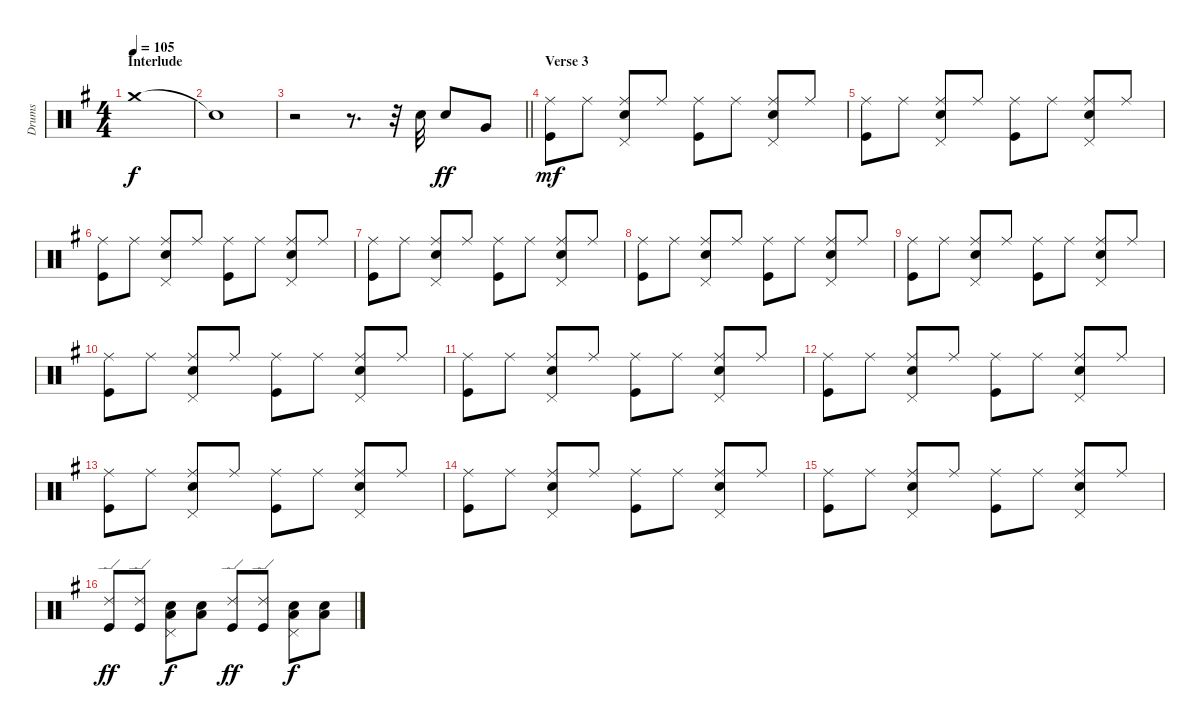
\track ("Drums" "Drums") {instrument percussion}
\staff {score}
\articulation defaults
\ts (4 4)
\section ("" "Interlude")
\tempo 105
\clef neutral
\ks eminor "Crash medium (hit)"{t}.1{dy f}
|
"Snare (hit)"{t}.1 |
\barLineRight lightlight
r.2 r.8{d} r.32 "Snare (hit) 2".32 "Snare (hit) 2".8{dy ff} "Very Low Tom (hit)".8 |
\section ("" "Verse 3")
("Ride (middle)" "Kick (hit)").8{dy mf} "Ride (middle)".8 ("Ride (middle)" "Pedal Hi-Hat (hit)" "Snare (hit) 2").8 "Ride (middle)".8 ("Ride (middle)" "Kick (hit)").8 "Ride (middle)".8 ("Ride (middle)" "Pedal Hi-Hat (hit)" "Snare (hit) 2").8 "Ride (middle)".8 |
("Ride (middle)" "Kick (hit)").8 "Ride (middle)".8 ("Ride (middle)" "Pedal Hi-Hat (hit)" "Snare (hit) 2").8 "Ride (middle)".8 ("Ride (middle)" "Kick (hit)").8 "Ride (middle)".8 ("Ride (middle)" "Pedal Hi-Hat (hit)" "Snare (hit) 2").8 "Ride (middle)".8 |
("Ride (middle)" "Kick (hit)").8 "Ride (middle)".8 ("Ride (middle)" "Pedal Hi-Hat (hit)" "Snare (hit) 2").8 "Ride (middle)".8 ("Ride (middle)" "Kick (hit)").8 "Ride (middle)".8 ("Ride (middle)" "Pedal Hi-Hat (hit)" "Snare (hit) 2").8 "Ride (middle)".8 |
("Ride (middle)" "Kick (hit)").8 "Ride (middle)".8 ("Ride (middle)" "Pedal Hi-Hat (hit)" "Snare (hit) 2").8 "Ride (middle)".8 ("Ride (middle)" "Kick (hit)").8 "Ride (middle)".8 ("Ride (middle)" "Pedal Hi-Hat (hit)" "Snare (hit) 2").8 "Ride (middle)".8 |
("Ride (middle)" "Kick (hit)").8 "Ride (middle)".8 ("Ride (middle)" "Pedal Hi-Hat (hit)" "Snare (hit) 2").8 "Ride (middle)".8 ("Ride (middle)" "Kick (hit)").8 "Ride (middle)".8 ("Ride (middle)" "Pedal Hi-Hat (hit)" "Snare (hit) 2").8 "Ride (middle)".8 |
("Ride (middle)" "Kick (hit)").8 "Ride (middle)".8 ("Ride (middle)" "Pedal Hi-Hat (hit)" "Snare (hit) 2").8 "Ride (middle)".8 ("Ride (middle)" "Kick (hit)").8 "Ride (middle)".8 ("Ride (middle)" "Pedal Hi-Hat (hit)" "Snare (hit) 2").8 "Ride (middle)".8 |
("Ride (middle)" "Kick (hit)").8 "Ride (middle)".8 ("Ride (middle)" "Pedal Hi-Hat (hit)" "Snare (hit) 2").8 "Ride (middle)".8 ("Ride (middle)" "Kick (hit)").8 "Ride (middle)".8 ("Ride (middle)" "Pedal Hi-Hat (hit)" "Snare (hit) 2").8 "Ride (middle)".8 |
("Ride (middle)" "Kick (hit)").8 "Ride (middle)".8 ("Ride (middle)" "Pedal Hi-Hat (hit)" "Snare (hit) 2").8 "Ride (middle)".8 ("Ride (middle)" "Kick (hit)").8 "Ride (middle)".8 ("Ride (middle)" "Pedal Hi-Hat (hit)" "Snare (hit) 2").8 "Ride (middle)".8 |
("Ride (middle)" "Kick (hit)").8 "Ride (middle)".8 ("Ride (middle)" "Pedal Hi-Hat (hit)" "Snare (hit) 2").8 "Ride (middle)".8 ("Ride (middle)" "Kick (hit)").8 "Ride (middle)".8 ("Ride (middle)" "Pedal Hi-Hat (hit)" "Snare (hit) 2").8 "Ride (middle)".8 |
("Ride (middle)" "Kick (hit)").8 "Ride (middle)".8 ("Ride (middle)" "Pedal Hi-Hat (hit)" "Snare (hit) 2").8 "Ride (middle)".8 ("Ride (middle)" "Kick (hit)").8 "Ride (middle)".8 ("Ride (middle)" "Pedal Hi-Hat (hit)" "Snare (hit) 2").8 "Ride (middle)".8 |
("Ride (middle)" "Kick (hit)").8 "Ride (middle)".8 ("Ride (middle)" "Pedal Hi-Hat (hit)" "Snare (hit) 2").8 "Ride (middle)".8 ("Ride (middle)" "Kick (hit)").8 "Ride (middle)".8 ("Ride (middle)" "Pedal Hi-Hat (hit)" "Snare (hit) 2").8 "Ride (middle)".8 |
("Ride (middle)" "Kick (hit)").8 "Ride (middle)".8 ("Ride (middle)" "Pedal Hi-Hat (hit)" "Snare (hit) 2").8 "Ride (middle)".8 ("Ride (middle)" "Kick (hit)").8 "Ride (middle)".8 ("Ride (middle)" "Pedal Hi-Hat (hit)" "Snare (hit) 2").8 "Ride (middle)".8 |
("Ride (edge) 2" "Kick (hit)").8{dy ff} ("Ride (edge) 2" "Kick (hit)").8 ("Pedal Hi-Hat (hit)" "Snare (hit) 2" "Low Tom (hit)").8{dy f} ("Snare (hit) 2" "Low Tom (hit)").8 ("Ride (edge) 2" "Kick (hit)").8{dy ff} ("Ride (edge) 2" "Kick (hit)").8 ("Pedal Hi-Hat (hit)" "Snare (hit) 2" "Low Tom (hit)").8{dy f} ("Snare (hit) 2" "Low Tom (hit)").8
